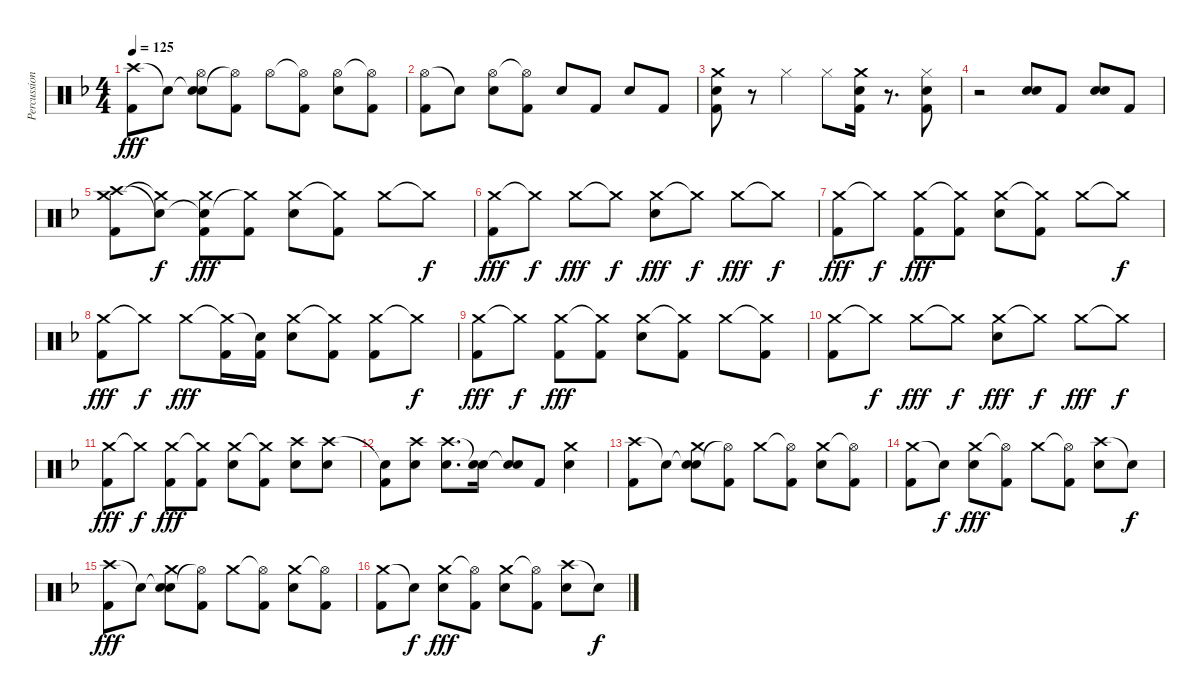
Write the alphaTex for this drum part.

\track ("Percussion" "Percussion") {instrument percussion}
\staff {score}
\articulation defaults
\ts (4 4)
\tempo 125
\clef neutral
\ks dminor
("Crash high (hit)" "Kick (hit) 2").8{dy fff} "Snare (hit)"{t}.8 ("Snare (hit)"{t} "Hi-Hat (open)" "Electric Snare (hit)").8 ("Hi-Hat (open)"{t} "Kick (hit) 2").8 "Hi-Hat (open)".8 ("Hi-Hat (open)"{t} "Kick (hit) 2").8 ("Hi-Hat (open)" "Electric Snare (hit)").8 ("Hi-Hat (open)"{t} "Kick (hit) 2").8 |
("Hi-Hat (open)" "Kick (hit) 2").8 "Snare (hit)"{t}.8 ("Hi-Hat (open)" "Electric Snare (hit)").8 ("Hi-Hat (open)"{t} "Kick (hit) 2").8 "Electric Snare (hit)".8 "Kick (hit) 2".8 "Electric Snare (hit)".8 "Kick (hit) 2".8 |
("Crash medium (hit)" "Electric Snare (hit)" "Kick (hit) 2").8 r.8{volume 0} "Hi-Hat (closed)".4{volume 16} "Hi-Hat (closed)".8 ("Crash medium (hit)" "Electric Snare (hit)" "Kick (hit) 2").16 r.8{d volume 0} ("Hi-Hat (closed)" "Electric Snare (hit)" "Kick (hit) 2").8{volume 16} |
r.2 ("Electric Snare (hit)" "Electric Snare (hit)").8 "Kick (hit) 2".8 ("Electric Snare (hit)" "Electric Snare (hit)").8 "Kick (hit) 2".8 |
("Crash high (hit)" "Crash medium (hit)" "Kick (hit) 2").8 ("Snare (hit)"{t} "Crash medium (hit)"{t}).8{dy f} ("Snare (hit)"{t} "Crash medium (hit)" "Kick (hit) 2").8{dy fff} ("Crash medium (hit)"{t} "Kick (hit) 2").8 ("Crash medium (hit)" "Electric Snare (hit)").8 ("Crash medium (hit)"{t} "Kick (hit) 2").8 "Crash medium (hit)".8 "Crash medium (hit)"{t}.8{dy f} |
("Crash medium (hit)" "Kick (hit) 2").8{dy fff} "Crash medium (hit)"{t}.8{dy f} "Crash medium (hit)".8{dy fff} "Crash medium (hit)"{t}.8{dy f} ("Crash medium (hit)" "Electric Snare (hit)").8{dy fff} "Crash medium (hit)"{t}.8{dy f} "Crash medium (hit)".8{dy fff} "Crash medium (hit)"{t}.8{dy f} |
("Crash medium (hit)" "Kick (hit) 2").8{dy fff} "Crash medium (hit)"{t}.8{dy f} ("Crash medium (hit)" "Kick (hit) 2").8{dy fff} ("Crash medium (hit)"{t} "Kick (hit) 2").8 ("Crash medium (hit)" "Electric Snare (hit)").8 ("Crash medium (hit)"{t} "Kick (hit) 2").8 "Crash medium (hit)".8 "Crash medium (hit)"{t}.8{dy f} |
("Crash medium (hit)" "Kick (hit) 2").8{dy fff} "Crash medium (hit)"{t}.8{dy f} "Crash medium (hit)".8{dy fff} ("Crash medium (hit)"{t} "Kick (hit) 2").16 ("Snare (hit)"{t} "Kick (hit) 2").16 ("Crash medium (hit)" "Electric Snare (hit)").8 ("Crash medium (hit)"{t} "Kick (hit) 2").8 ("Crash medium (hit)" "Kick (hit) 2").8 "Crash medium (hit)"{t}.8{dy f} |
("Crash medium (hit)" "Kick (hit) 2").8{dy fff} "Crash medium (hit)"{t}.8{dy f} ("Crash medium (hit)" "Kick (hit) 2").8{dy fff} ("Crash medium (hit)"{t} "Kick (hit) 2").8 ("Crash medium (hit)" "Electric Snare (hit)").8 ("Crash medium (hit)"{t} "Kick (hit) 2").8 "Crash medium (hit)".8 ("Crash medium (hit)"{t} "Kick (hit) 2").8 |
("Crash medium (hit)" "Kick (hit) 2").8 "Crash medium (hit)"{t}.8{dy f} "Crash medium (hit)".8{dy fff} "Crash medium (hit)"{t}.8{dy f} ("Crash medium (hit)" "Electric Snare (hit)").8{dy fff} "Crash medium (hit)"{t}.8{dy f} "Crash medium (hit)".8{dy fff} "Crash medium (hit)"{t}.8{dy f} |
("Crash medium (hit)" "Kick (hit) 2").8{dy fff} "Crash medium (hit)"{t}.8{dy f} ("Crash medium (hit)" "Kick (hit) 2").8{dy fff} ("Crash medium (hit)"{t} "Kick (hit) 2").8 ("Crash medium (hit)" "Electric Snare (hit)").8 ("Crash medium (hit)"{t} "Kick (hit) 2").8 ("Crash high (hit)" "Electric Snare (hit)").8 ("Crash high (hit)" "Electric Snare (hit)").8 |
("Snare (hit)"{t} "Kick (hit) 2").8 ("Crash high (hit)" "Electric Snare (hit)").8 ("Crash high (hit)" "Electric Snare (hit)").8{d} ("Snare (hit)"{t} "Electric Snare (hit)").16 ("Snare (hit)"{t} "Electric Snare (hit)").8 "Kick (hit) 2".8 ("Crash medium (hit)" "Electric Snare (hit)").4 |
("Crash high (hit)" "Kick (hit) 2").8 "Snare (hit)"{t}.8 ("Snare (hit)"{t} "Crash medium (hit)" "Electric Snare (hit)").8 ("Hi-Hat (open)"{t} "Kick (hit) 2").8 "Crash medium (hit)".8 ("Hi-Hat (open)"{t} "Kick (hit) 2").8 ("Crash medium (hit)" "Electric Snare (hit)").8 ("Hi-Hat (open)"{t} "Kick (hit) 2").8 |
("Crash medium (hit)" "Kick (hit) 2").8 "Snare (hit)"{t}.8{dy f} ("Crash medium (hit)" "Electric Snare (hit)").8{dy fff} ("Hi-Hat (open)"{t} "Kick (hit) 2").8 "Crash medium (hit)".8 ("Hi-Hat (open)"{t} "Kick (hit) 2").8 ("Crash high (hit)" "Electric Snare (hit)").8 "Snare (hit)"{t}.8{dy f} |
("Crash high (hit)" "Kick (hit) 2").8{dy fff} "Snare (hit)"{t}.8 ("Snare (hit)"{t} "Crash medium (hit)" "Electric Snare (hit)").8 ("Hi-Hat (open)"{t} "Kick (hit) 2").8 "Crash medium (hit)".8 ("Hi-Hat (open)"{t} "Kick (hit) 2").8 ("Crash medium (hit)" "Electric Snare (hit)").8 ("Hi-Hat (open)"{t} "Kick (hit) 2").8 |
("Crash medium (hit)" "Kick (hit) 2").8 "Snare (hit)"{t}.8{dy f} ("Crash medium (hit)" "Electric Snare (hit)").8{dy fff} ("Hi-Hat (open)"{t} "Kick (hit) 2").8 ("Crash medium (hit)" "Electric Snare (hit)").8 ("Hi-Hat (open)"{t} "Kick (hit) 2").8 ("Crash high (hit)" "Electric Snare (hit)").8 "Snare (hit)"{t}.8{dy f}
